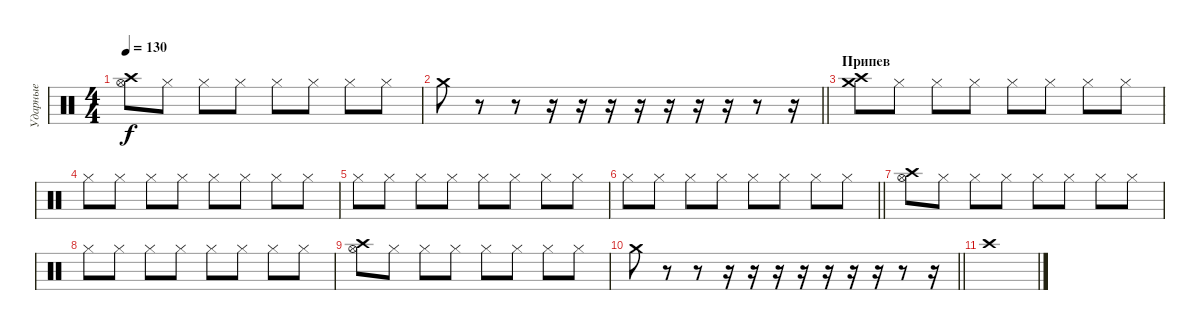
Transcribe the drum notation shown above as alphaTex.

\track ("Ударные" "Ударные") {instrument percussion}
\staff {score}
\articulation defaults
\ts (4 4)
\tempo 130
\clef neutral
\ks c
("Hi-Hat (open)" "Crash high (hit)").8{dy f} "Hi-Hat (closed)".8 "Hi-Hat (closed)".8 "Hi-Hat (closed)".8 "Hi-Hat (closed)".8 "Hi-Hat (closed)".8 "Hi-Hat (closed)".8 "Hi-Hat (closed)".8 |
\barLineRight lightlight "Crash medium (hit)".8
r.8 r.8 r.16 r.16 r.16 r.16 r.16 r.16 r.16 r.8 r.16 |
\section ("" "Припев")
("Crash high (hit)" "Crash medium (hit)").8 "Hi-Hat (closed)".8 "Hi-Hat (closed)".8 "Hi-Hat (closed)".8 "Hi-Hat (closed)".8 "Hi-Hat (closed)".8 "Hi-Hat (closed)".8 "Hi-Hat (closed)".8 |
"Hi-Hat (closed)".8 "Hi-Hat (closed)".8 "Hi-Hat (closed)".8 "Hi-Hat (closed)".8 "Hi-Hat (closed)".8 "Hi-Hat (closed)".8 "Hi-Hat (closed)".8 "Hi-Hat (closed)".8 |
"Hi-Hat (closed)".8 "Hi-Hat (closed)".8 "Hi-Hat (closed)".8 "Hi-Hat (closed)".8 "Hi-Hat (closed)".8 "Hi-Hat (closed)".8 "Hi-Hat (closed)".8 "Hi-Hat (closed)".8 |
\barLineRight lightlight "Hi-Hat (closed)".8 "Hi-Hat (closed)".8 "Hi-Hat (closed)".8 "Hi-Hat (closed)".8 "Hi-Hat (closed)".8 "Hi-Hat (closed)".8 "Hi-Hat (closed)".8 "Hi-Hat (closed)".8
|
("Hi-Hat (open)" "Crash high (hit)").8 "Hi-Hat (closed)".8 "Hi-Hat (closed)".8 "Hi-Hat (closed)".8 "Hi-Hat (closed)".8 "Hi-Hat (closed)".8 "Hi-Hat (closed)".8 "Hi-Hat (closed)".8 |
"Hi-Hat (closed)".8 "Hi-Hat (closed)".8 "Hi-Hat (closed)".8 "Hi-Hat (closed)".8 "Hi-Hat (closed)".8 "Hi-Hat (closed)".8 "Hi-Hat (closed)".8 "Hi-Hat (closed)".8 |
("Hi-Hat (open)" "Crash high (hit)").8 "Hi-Hat (closed)".8 "Hi-Hat (closed)".8 "Hi-Hat (closed)".8 "Hi-Hat (closed)".8 "Hi-Hat (closed)".8 "Hi-Hat (closed)".8 "Hi-Hat (closed)".8 |
\barLineRight lightlight "Crash medium (hit)".8
r.8 r.8 r.16 r.16 r.16 r.16 r.16 r.16 r.16 r.8 r.16 |
"Crash high (hit)".1
